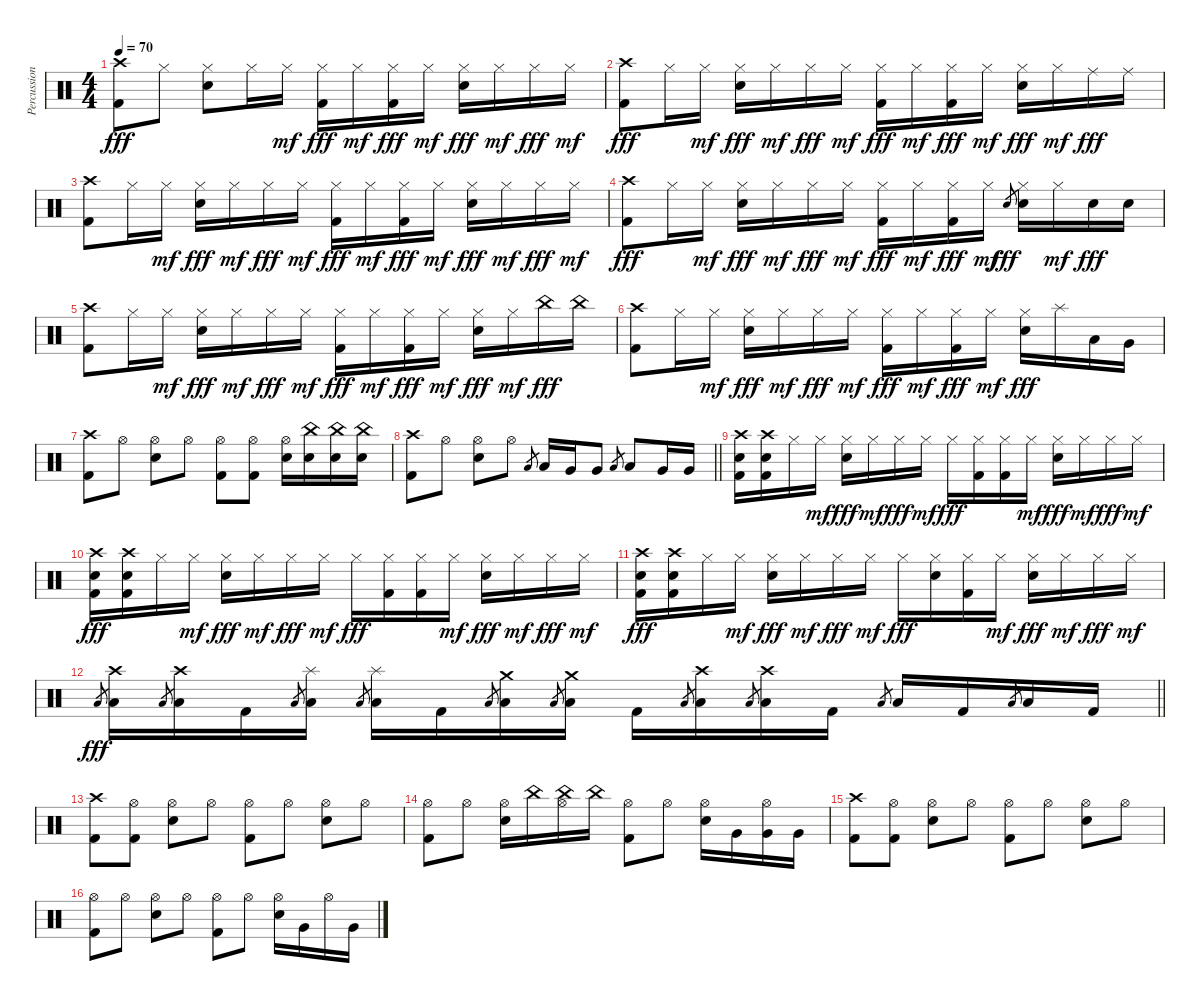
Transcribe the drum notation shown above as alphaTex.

\track ("Percussion" "Percussion") {instrument percussion}
\staff {score}
\articulation defaults
\ts (4 4)
\tempo 70
\clef neutral
\ks c
("Crash high (hit)" "Kick (hit) 2").8{dy fff} "Hi-Hat (closed)".8 ("Hi-Hat (closed)" "Snare (hit) 2").8 "Hi-Hat (closed)".16 "Hi-Hat (closed)".16{dy mf} ("Hi-Hat (closed)" "Kick (hit) 2").16{dy fff} "Hi-Hat (closed)".16{dy mf} ("Hi-Hat (closed)" "Kick (hit) 2").16{dy fff} "Hi-Hat (closed)".16{dy mf} ("Hi-Hat (closed)" "Snare (hit) 2").16{dy fff} "Hi-Hat (closed)".16{dy mf} "Hi-Hat (closed)".16{dy fff} "Hi-Hat (closed)".16{dy mf} |
("Crash high (hit)" "Kick (hit) 2").8{dy fff} "Hi-Hat (closed)".16 "Hi-Hat (closed)".16{dy mf} ("Hi-Hat (closed)" "Snare (hit) 2").16{dy fff} "Hi-Hat (closed)".16{dy mf} "Hi-Hat (closed)".16{dy fff} "Hi-Hat (closed)".16{dy mf} ("Hi-Hat (closed)" "Kick (hit) 2").16{dy fff} "Hi-Hat (closed)".16{dy mf} ("Hi-Hat (closed)" "Kick (hit) 2").16{dy fff} "Hi-Hat (closed)".16{dy mf} ("Hi-Hat (closed)" "Snare (hit) 2").16{dy fff} "Hi-Hat (closed)".16{dy mf} "Ride (middle)".16{dy fff} "Ride (middle)".16 |
("Crash high (hit)" "Kick (hit) 2").8 "Hi-Hat (closed)".16 "Hi-Hat (closed)".16{dy mf} ("Hi-Hat (closed)" "Snare (hit) 2").16{dy fff} "Hi-Hat (closed)".16{dy mf} "Hi-Hat (closed)".16{dy fff} "Hi-Hat (closed)".16{dy mf} ("Hi-Hat (closed)" "Kick (hit) 2").16{dy fff} "Hi-Hat (closed)".16{dy mf} ("Hi-Hat (closed)" "Kick (hit) 2").16{dy fff} "Hi-Hat (closed)".16{dy mf} ("Hi-Hat (closed)" "Snare (hit) 2").16{dy fff} "Hi-Hat (closed)".16{dy mf} "Hi-Hat (closed)".16{dy fff} "Hi-Hat (closed)".16{dy mf} |
("Crash high (hit)" "Kick (hit) 2").8{dy fff} "Hi-Hat (closed)".16 "Hi-Hat (closed)".16{dy mf} ("Hi-Hat (closed)" "Snare (hit) 2").16{dy fff} "Hi-Hat (closed)".16{dy mf} "Hi-Hat (closed)".16{dy fff} "Hi-Hat (closed)".16{dy mf} ("Hi-Hat (closed)" "Kick (hit) 2").16{dy fff} "Hi-Hat (closed)".16{dy mf} ("Hi-Hat (closed)" "Kick (hit) 2").16{dy fff} "Hi-Hat (closed)".16{dy mf} "Snare (hit) 2".8{gr dy fff} ("Hi-Hat (closed)" "Snare (hit) 2").16 "Hi-Hat (closed)".16{dy mf} "Snare (hit) 2".16{dy fff} "Snare (hit) 2".16 |
("Crash high (hit)" "Kick (hit) 2").8 "Hi-Hat (closed)".16 "Hi-Hat (closed)".16{dy mf} ("Hi-Hat (closed)" "Snare (hit) 2").16{dy fff} "Hi-Hat (closed)".16{dy mf} "Hi-Hat (closed)".16{dy fff} "Hi-Hat (closed)".16{dy mf} ("Hi-Hat (closed)" "Kick (hit) 2").16{dy fff} "Hi-Hat (closed)".16{dy mf} ("Hi-Hat (closed)" "Kick (hit) 2").16{dy fff} "Hi-Hat (closed)".16{dy mf} ("Hi-Hat (closed)" "Snare (hit) 2").16{dy fff} "Hi-Hat (closed)".16{dy mf} "China (hit)".16{dy fff} "China (hit)".16 |
("Crash high (hit)" "Kick (hit) 2").8 "Hi-Hat (closed)".16 "Hi-Hat (closed)".16{dy mf} ("Hi-Hat (closed)" "Snare (hit) 2").16{dy fff} "Hi-Hat (closed)".16{dy mf} "Hi-Hat (closed)".16{dy fff} "Hi-Hat (closed)".16{dy mf} ("Hi-Hat (closed)" "Kick (hit) 2").16{dy fff} "Hi-Hat (closed)".16{dy mf} ("Hi-Hat (closed)" "Kick (hit) 2").16{dy fff} "Hi-Hat (closed)".16{dy mf} ("Hi-Hat (closed)" "Snare (hit) 2").16{dy fff} "Splash (hit)".16 "Low Tom (hit)".16 "Very Low Tom (hit)".16 |
("Crash high (hit)" "Kick (hit) 2").8 "Hi-Hat (open)".8 ("Hi-Hat (open)" "Snare (hit) 2").8 "Hi-Hat (open)".8 ("Hi-Hat (open)" "Kick (hit) 2").8 ("Hi-Hat (open)" "Kick (hit) 2").8 ("Hi-Hat (open)" "Snare (hit) 2").16 ("China (hit)" "Snare (hit) 2").16 ("China (hit)" "Snare (hit) 2").16 ("China (hit)" "Snare (hit) 2").16 |
\barLineRight lightlight
("Crash high (hit)" "Kick (hit) 2").8 "Hi-Hat (open)".8 ("Hi-Hat (open)" "Snare (hit) 2").8 "Hi-Hat (open)".8 "Low Tom (hit)".8{gr} "Low Tom (hit)".16 "Very Low Tom (hit)".16 "Very Low Tom (hit)".8 "Low Tom (hit)".8{gr} "Low Tom (hit)".8 "Very Low Tom (hit)".16 "Very Low Tom (hit)".16 |
("Crash high (hit)" "Snare (hit) 2" "Kick (hit) 2").16 ("Crash high (hit)" "Snare (hit) 2" "Kick (hit) 2").16 "Hi-Hat (closed)".16 "Hi-Hat (closed)".16{dy mf} ("Hi-Hat (closed)" "Snare (hit) 2").16{dy fff} "Hi-Hat (closed)".16{dy mf} "Hi-Hat (closed)".16{dy fff} "Hi-Hat (closed)".16{dy mf} "Hi-Hat (closed)".16{dy fff} ("Hi-Hat (closed)" "Kick (hit) 2").16 ("Hi-Hat (closed)" "Kick (hit) 2").16 "Hi-Hat (closed)".16{dy mf} ("Hi-Hat (closed)" "Snare (hit) 2").16{dy fff} "Hi-Hat (closed)".16{dy mf} "Hi-Hat (closed)".16{dy fff} "Hi-Hat (closed)".16{dy mf} |
("Crash high (hit)" "Snare (hit) 2" "Kick (hit) 2").16{dy fff} ("Crash high (hit)" "Snare (hit) 2" "Kick (hit) 2").16 "Hi-Hat (closed)".16 "Hi-Hat (closed)".16{dy mf} ("Hi-Hat (closed)" "Snare (hit) 2").16{dy fff} "Hi-Hat (closed)".16{dy mf} "Hi-Hat (closed)".16{dy fff} "Hi-Hat (closed)".16{dy mf} "Hi-Hat (closed)".16{dy fff} ("Hi-Hat (closed)" "Kick (hit) 2").16 ("Hi-Hat (closed)" "Kick (hit) 2").16 "Hi-Hat (closed)".16{dy mf} ("Hi-Hat (closed)" "Snare (hit) 2").16{dy fff} "Hi-Hat (closed)".16{dy mf} "Hi-Hat (closed)".16{dy fff} "Hi-Hat (closed)".16{dy mf} |
("Crash high (hit)" "Snare (hit) 2" "Kick (hit) 2").16{dy fff} ("Crash high (hit)" "Snare (hit) 2" "Kick (hit) 2").16 "Hi-Hat (closed)".16 "Hi-Hat (closed)".16{dy mf} ("Hi-Hat (closed)" "Snare (hit) 2").16{dy fff} "Hi-Hat (closed)".16{dy mf} "Hi-Hat (closed)".16{dy fff} "Hi-Hat (closed)".16{dy mf} "Hi-Hat (closed)".16{dy fff} ("Hi-Hat (closed)" "Snare (hit) 2").16 ("Hi-Hat (closed)" "Kick (hit) 2").16 "Hi-Hat (closed)".16{dy mf} ("Hi-Hat (closed)" "Snare (hit) 2").16{dy fff} "Hi-Hat (closed)".16{dy mf} "Hi-Hat (closed)".16{dy fff} "Hi-Hat (closed)".16{dy mf} |
\barLineRight lightlight "Low Tom (hit)".8{gr dy fff}
("Crash high (hit)" "Low Tom (hit)").16 "Low Tom (hit)".8{gr} ("Crash high (hit)" "Low Tom (hit)").16 "Kick (hit) 2".16 "Low Tom (hit)".8{gr} ("Splash (hit)" "Low Tom (hit)").16 "Low Tom (hit)".8{gr} ("Splash (hit)" "Low Tom (hit)").16 "Kick (hit) 2".16 "Low Tom (hit)".8{gr} ("Crash medium (hit)" "Low Tom (hit)").16 "Low Tom (hit)".8{gr} ("Crash medium (hit)" "Low Tom (hit)").16 "Kick (hit) 2".16 "Low Tom (hit)".8{gr} ("Crash high (hit)" "Low Tom (hit)").16 "Low Tom (hit)".8{gr} ("Crash high (hit)" "Low Tom (hit)").16 "Kick (hit) 2".16 "Low Tom (hit)".8{gr} "Low Tom (hit)".16 "Kick (hit) 2".16 "Low Tom (hit)".8{gr} "Low Tom (hit)".16 "Kick (hit) 2".16 |
("Crash high (hit)" "Kick (hit) 2").8 ("Hi-Hat (open)" "Kick (hit) 2").8 ("Hi-Hat (open)" "Snare (hit) 2").8 "Hi-Hat (open)".8 ("Hi-Hat (open)" "Kick (hit) 2").8 "Hi-Hat (open)".8 ("Hi-Hat (open)" "Snare (hit) 2").8 "Hi-Hat (open)".8 |
("Hi-Hat (open)" "Kick (hit) 2").8 "Hi-Hat (open)".8 ("Hi-Hat (open)" "Snare (hit) 2").16 "China (hit)".16 ("Hi-Hat (open)" "China (hit)").16 "China (hit)".16 ("Hi-Hat (open)" "Kick (hit) 2").8 "Hi-Hat (open)".8 ("Hi-Hat (open)" "Snare (hit) 2").16 "Very Low Tom (hit)".16 ("Hi-Hat (open)" "Very Low Tom (hit)").16 "Very Low Tom (hit)".16 |
("Crash high (hit)" "Kick (hit) 2").8 ("Hi-Hat (open)" "Kick (hit) 2").8 ("Hi-Hat (open)" "Snare (hit) 2").8 "Hi-Hat (open)".8 ("Hi-Hat (open)" "Kick (hit) 2").8 "Hi-Hat (open)".8 ("Hi-Hat (open)" "Snare (hit) 2").8 "Hi-Hat (open)".8 |
("Hi-Hat (open)" "Kick (hit) 2").8 "Hi-Hat (open)".8 ("Hi-Hat (open)" "Snare (hit) 2").8 "Hi-Hat (open)".8 ("Hi-Hat (open)" "Kick (hit) 2").8 "Hi-Hat (open)".8 ("Hi-Hat (open)" "Snare (hit) 2").16 "Very Low Tom (hit)".16 "Hi-Hat (open)".16 "Very Low Tom (hit)".16
